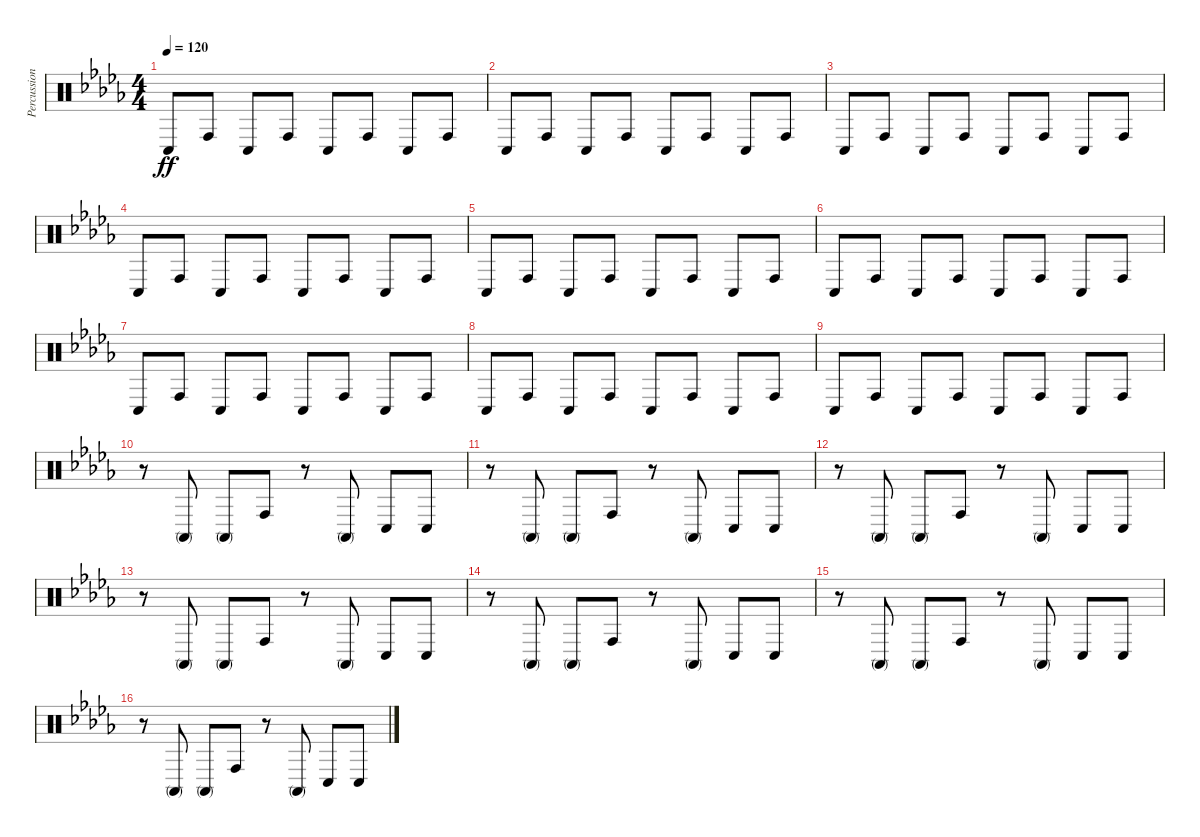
\track ("Percussion" "Percussion") {instrument percussion}
\staff {score}
\articulation defaults
\ts (4 4)
\tempo 120
\clef neutral
\ks db "Conga low (hit)".8{dy ff} "Conga high (hit)".8 "Conga low (hit)".8 "Conga high (hit)".8 "Conga low (hit)".8 "Conga high (hit)".8 "Conga low (hit)".8 "Conga high (hit)".8
|
"Conga low (hit)".8 "Conga high (hit)".8 "Conga low (hit)".8 "Conga high (hit)".8 "Conga low (hit)".8 "Conga high (hit)".8 "Conga low (hit)".8 "Conga high (hit)".8 |
"Conga low (hit)".8 "Conga high (hit)".8 "Conga low (hit)".8 "Conga high (hit)".8 "Conga low (hit)".8 "Conga high (hit)".8 "Conga low (hit)".8 "Conga high (hit)".8 |
"Conga low (hit)".8 "Conga high (hit)".8 "Conga low (hit)".8 "Conga high (hit)".8 "Conga low (hit)".8 "Conga high (hit)".8 "Conga low (hit)".8 "Conga high (hit)".8 |
"Conga low (hit)".8 "Conga high (hit)".8 "Conga low (hit)".8 "Conga high (hit)".8 "Conga low (hit)".8 "Conga high (hit)".8 "Conga low (hit)".8 "Conga high (hit)".8 |
"Conga low (hit)".8 "Conga high (hit)".8 "Conga low (hit)".8 "Conga high (hit)".8 "Conga low (hit)".8 "Conga high (hit)".8 "Conga low (hit)".8 "Conga high (hit)".8 |
"Conga low (hit)".8 "Conga high (hit)".8 "Conga low (hit)".8 "Conga high (hit)".8 "Conga low (hit)".8 "Conga high (hit)".8 "Conga low (hit)".8 "Conga high (hit)".8 |
"Conga low (hit)".8 "Conga high (hit)".8 "Conga low (hit)".8 "Conga high (hit)".8 "Conga low (hit)".8 "Conga high (hit)".8 "Conga low (hit)".8 "Conga high (hit)".8 |
"Conga low (hit)".8 "Conga high (hit)".8 "Conga low (hit)".8 "Conga high (hit)".8 "Conga low (hit)".8 "Conga high (hit)".8 "Conga low (hit)".8 "Conga high (hit)".8 |
r.8 "Conga high (mute)".8 "Conga high (mute)".8 "Conga high (hit)".8 r.8 "Conga high (mute)".8 "Conga low (hit)".8 "Conga low (hit)".8 |
r.8 "Conga high (mute)".8 "Conga high (mute)".8 "Conga high (hit)".8 r.8 "Conga high (mute)".8 "Conga low (hit)".8 "Conga low (hit)".8 |
r.8 "Conga high (mute)".8 "Conga high (mute)".8 "Conga high (hit)".8 r.8 "Conga high (mute)".8 "Conga low (hit)".8 "Conga low (hit)".8 |
r.8 "Conga high (mute)".8 "Conga high (mute)".8 "Conga high (hit)".8 r.8 "Conga high (mute)".8 "Conga low (hit)".8 "Conga low (hit)".8 |
r.8 "Conga high (mute)".8 "Conga high (mute)".8 "Conga high (hit)".8 r.8 "Conga high (mute)".8 "Conga low (hit)".8 "Conga low (hit)".8 |
r.8 "Conga high (mute)".8 "Conga high (mute)".8 "Conga high (hit)".8 r.8 "Conga high (mute)".8 "Conga low (hit)".8 "Conga low (hit)".8 |
r.8 "Conga high (mute)".8 "Conga high (mute)".8 "Conga high (hit)".8 r.8 "Conga high (mute)".8 "Conga low (hit)".8 "Conga low (hit)".8
